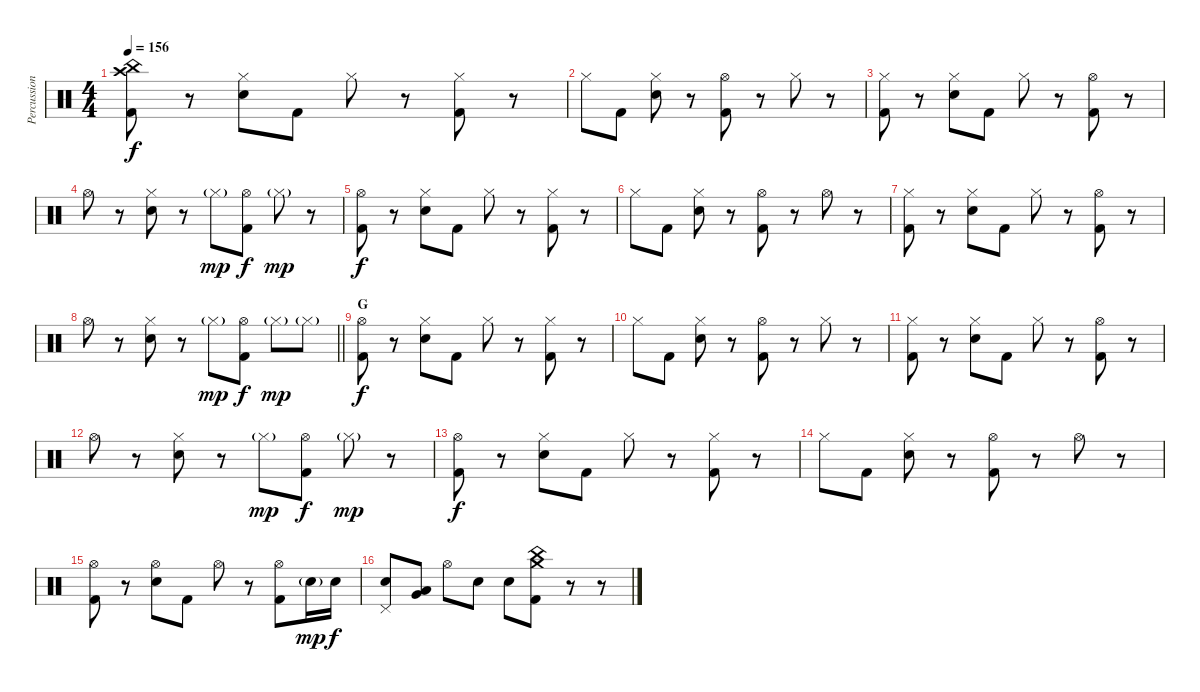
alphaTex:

\track ("Percussion" "Percussion") {instrument percussion}
\staff {score}
\articulation defaults
\ts (4 4)
\tempo 156
\clef neutral
\ks c
("Crash high (hit)" "China (hit)" "Kick (hit) 2").8{dy f} r.8 ("Hi-Hat (closed)" "Electric Snare (hit)").8 "Kick (hit) 2".8 "Hi-Hat (closed)".8 r.8 ("Hi-Hat (closed)" "Kick (hit) 2").8 r.8 |
"Hi-Hat (closed)".8 "Kick (hit) 2".8 ("Hi-Hat (closed)" "Electric Snare (hit)").8 r.8 ("Hi-Hat (open)" "Kick (hit) 2").8 r.8 "Hi-Hat (closed)".8 r.8 |
("Hi-Hat (closed)" "Kick (hit) 2").8 r.8 ("Hi-Hat (closed)" "Electric Snare (hit)").8 "Kick (hit) 2".8 "Hi-Hat (closed)".8 r.8 ("Hi-Hat (open)" "Kick (hit) 2").8 r.8 |
"Hi-Hat (open)".8 r.8 ("Hi-Hat (closed)" "Electric Snare (hit)").8 r.8 "Hi-Hat (closed)"{g}.8{dy mp} ("Hi-Hat (open)" "Kick (hit) 2").8{dy f} "Hi-Hat (closed)"{g}.8{dy mp} r.8 |
("Hi-Hat (open)" "Kick (hit) 2").8{dy f} r.8 ("Hi-Hat (closed)" "Electric Snare (hit)").8 "Kick (hit) 2".8 "Hi-Hat (closed)".8 r.8 ("Hi-Hat (closed)" "Kick (hit) 2").8 r.8 |
"Hi-Hat (closed)".8 "Kick (hit) 2".8 ("Hi-Hat (closed)" "Electric Snare (hit)").8 r.8 ("Hi-Hat (open)" "Kick (hit) 2").8 r.8 "Hi-Hat (open)".8 r.8 |
("Hi-Hat (closed)" "Kick (hit) 2").8 r.8 ("Hi-Hat (closed)" "Electric Snare (hit)").8 "Kick (hit) 2".8 "Hi-Hat (closed)".8 r.8 ("Hi-Hat (open)" "Kick (hit) 2").8 r.8 |
\barLineRight lightlight "Hi-Hat (open)".8
r.8 ("Hi-Hat (closed)" "Electric Snare (hit)").8 r.8 "Hi-Hat (closed)"{g}.8{dy mp} ("Hi-Hat (open)" "Kick (hit) 2").8{dy f} "Hi-Hat (closed)"{g}.8{dy mp} "Hi-Hat (closed)"{g}.8 |
\section ("" "G")
("Hi-Hat (open)" "Kick (hit) 2").8{dy f} r.8 ("Hi-Hat (closed)" "Electric Snare (hit)").8 "Kick (hit) 2".8 "Hi-Hat (closed)".8 r.8 ("Hi-Hat (closed)" "Kick (hit) 2").8 r.8 |
"Hi-Hat (closed)".8 "Kick (hit) 2".8 ("Hi-Hat (closed)" "Electric Snare (hit)").8 r.8 ("Hi-Hat (open)" "Kick (hit) 2").8 r.8 "Hi-Hat (closed)".8 r.8 |
("Hi-Hat (closed)" "Kick (hit) 2").8 r.8 ("Hi-Hat (closed)" "Electric Snare (hit)").8 "Kick (hit) 2".8 "Hi-Hat (closed)".8 r.8 ("Hi-Hat (open)" "Kick (hit) 2").8 r.8 |
"Hi-Hat (open)".8 r.8 ("Hi-Hat (closed)" "Electric Snare (hit)").8 r.8 "Hi-Hat (closed)"{g}.8{dy mp} ("Hi-Hat (open)" "Kick (hit) 2").8{dy f} "Hi-Hat (closed)"{g}.8{dy mp} r.8 |
("Hi-Hat (open)" "Kick (hit) 2").8{dy f} r.8 ("Hi-Hat (closed)" "Electric Snare (hit)").8 "Kick (hit) 2".8 "Hi-Hat (closed)".8 r.8 ("Hi-Hat (closed)" "Kick (hit) 2").8 r.8 |
"Hi-Hat (closed)".8 "Kick (hit) 2".8 ("Hi-Hat (closed)" "Electric Snare (hit)").8 r.8 ("Hi-Hat (open)" "Kick (hit) 2").8 r.8 "Hi-Hat (open)".8 r.8 |
("Hi-Hat (open)" "Kick (hit) 2").8 r.8 ("Hi-Hat (open)" "Electric Snare (hit)").8 "Kick (hit) 2".8 "Hi-Hat (open)".8 r.8 ("Hi-Hat (open)" "Kick (hit) 2").8 "Electric Snare (hit)"{g}.16{dy mp} "Electric Snare (hit)".16{dy f} |
("Pedal Hi-Hat (hit)" "Electric Snare (hit)").8 ("Very Low Tom (hit)" "Low Floor Tom (hit)").8 "Hi-Hat (open)".8 "Electric Snare (hit)".8 "Electric Snare (hit)".8 ("Crash medium (hit)" "China (hit)" "Kick (hit) 2").8 r.8 r.8
